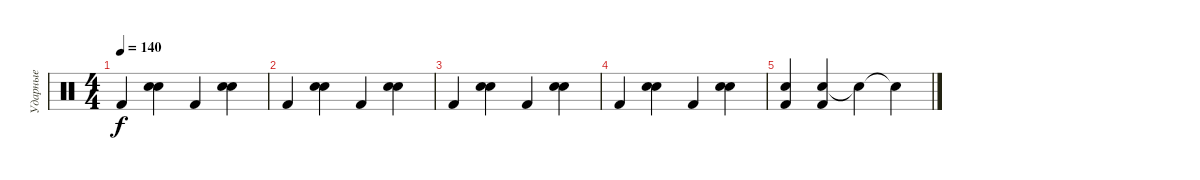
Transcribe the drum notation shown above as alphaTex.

\track ("Ударные" "Ударные") {instrument percussion}
\staff {score}
\articulation defaults
\ts (4 4)
\tempo 140
\clef neutral
\ks c "Kick (hit) 2".4{dy f}
("Hand Clap (hit)" "Electric Snare (hit)").4 "Kick (hit) 2".4 ("Hand Clap (hit)" "Electric Snare (hit)").4 |
"Kick (hit) 2".4 ("Hand Clap (hit)" "Electric Snare (hit)").4 "Kick (hit) 2".4 ("Hand Clap (hit)" "Electric Snare (hit)").4 |
"Kick (hit) 2".4 ("Hand Clap (hit)" "Electric Snare (hit)").4 "Kick (hit) 2".4 ("Hand Clap (hit)" "Electric Snare (hit)").4 |
"Kick (hit) 2".4 ("Hand Clap (hit)" "Electric Snare (hit)").4 "Kick (hit) 2".4 ("Hand Clap (hit)" "Electric Snare (hit)").4 |
("Electric Snare (hit)" "Kick (hit) 2").4 ("Electric Snare (hit)" "Kick (hit) 2").4 "Snare (hit)"{t}.4 "Snare (hit)"{t}.4
